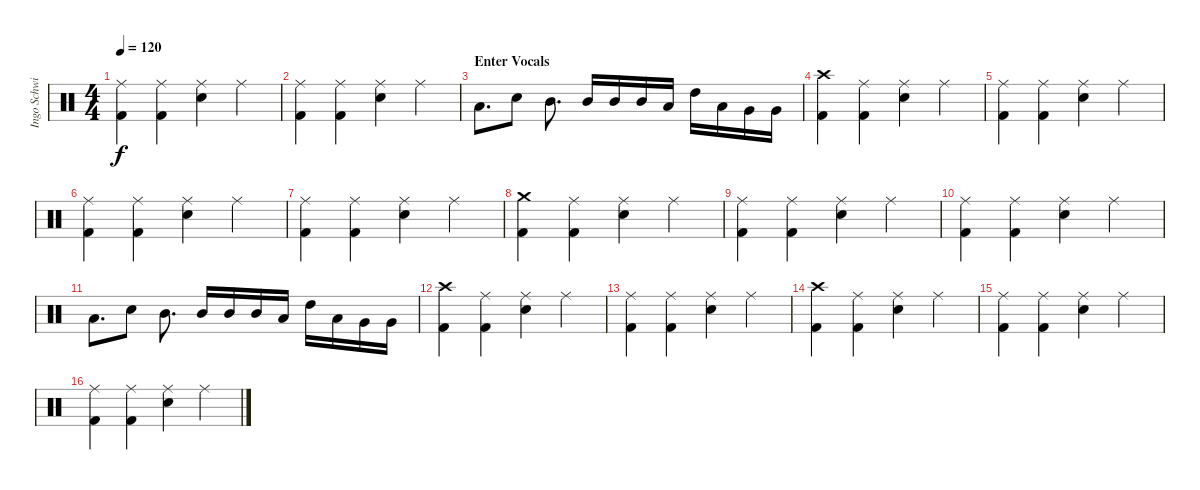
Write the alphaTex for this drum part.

\track ("Ingo Schwichtenberg" "Ingo Schwi") {instrument percussion}
\staff {score}
\articulation defaults
\ts (4 4)
\tempo 120
\clef neutral
\ks c
("Ride (middle)" "Kick (hit) 2").4{dy f} ("Ride (middle)" "Kick (hit) 2").4 ("Ride (middle)" "Snare (hit) 2").4 "Ride (middle)".4 |
("Ride (middle)" "Kick (hit) 2").4 ("Ride (middle)" "Kick (hit) 2").4 ("Ride (middle)" "Snare (hit) 2").4 "Ride (middle)".4 |
\section ("" "Enter Vocals")
"Low Tom (hit)".8{d} "Snare (hit) 2".8 "Mid Tom (hit)".8{d} "Mid Tom (hit)".16 "Mid Tom (hit)".16 "Mid Tom (hit)".16 "Low Tom (hit)".16 "High Tom (hit)".16 "Low Tom (hit)".16 "Very Low Tom (hit)".16 "Very Low Tom (hit)".16 |
("Crash high (hit)" "Kick (hit) 2").4 ("Ride (middle)" "Kick (hit) 2").4 ("Ride (middle)" "Snare (hit) 2").4 "Ride (middle)".4 |
("Ride (middle)" "Kick (hit) 2").4 ("Ride (middle)" "Kick (hit) 2").4 ("Ride (middle)" "Snare (hit) 2").4 "Ride (middle)".4 |
("Ride (middle)" "Kick (hit) 2").4 ("Ride (middle)" "Kick (hit) 2").4 ("Ride (middle)" "Snare (hit) 2").4 "Ride (middle)".4 |
("Ride (middle)" "Kick (hit) 2").4 ("Ride (middle)" "Kick (hit) 2").4 ("Ride (middle)" "Snare (hit) 2").4 "Ride (middle)".4 |
("Crash medium (hit)" "Kick (hit) 2").4 ("Ride (middle)" "Kick (hit) 2").4 ("Ride (middle)" "Snare (hit) 2").4 "Ride (middle)".4 |
("Ride (middle)" "Kick (hit) 2").4 ("Ride (middle)" "Kick (hit) 2").4 ("Ride (middle)" "Snare (hit) 2").4 "Ride (middle)".4 |
("Ride (middle)" "Kick (hit) 2").4 ("Ride (middle)" "Kick (hit) 2").4 ("Ride (middle)" "Snare (hit) 2").4 "Ride (middle)".4 |
"Low Tom (hit)".8{d} "Snare (hit) 2".8 "Mid Tom (hit)".8{d} "Mid Tom (hit)".16 "Mid Tom (hit)".16 "Mid Tom (hit)".16 "Low Tom (hit)".16 "High Tom (hit)".16 "Low Tom (hit)".16 "Very Low Tom (hit)".16 "Very Low Tom (hit)".16 |
("Crash high (hit)" "Kick (hit) 2").4 ("Ride (middle)" "Kick (hit) 2").4 ("Ride (middle)" "Snare (hit) 2").4 "Ride (middle)".4 |
("Ride (middle)" "Kick (hit) 2").4 ("Ride (middle)" "Kick (hit) 2").4 ("Ride (middle)" "Snare (hit) 2").4 "Ride (middle)".4 |
("Crash high (hit)" "Kick (hit) 2").4 ("Ride (middle)" "Kick (hit) 2").4 ("Ride (middle)" "Snare (hit) 2").4 "Ride (middle)".4 |
("Ride (middle)" "Kick (hit) 2").4 ("Ride (middle)" "Kick (hit) 2").4 ("Ride (middle)" "Snare (hit) 2").4 "Ride (middle)".4 |
("Ride (middle)" "Kick (hit) 2").4 ("Ride (middle)" "Kick (hit) 2").4 ("Ride (middle)" "Snare (hit) 2").4 "Ride (middle)".4
